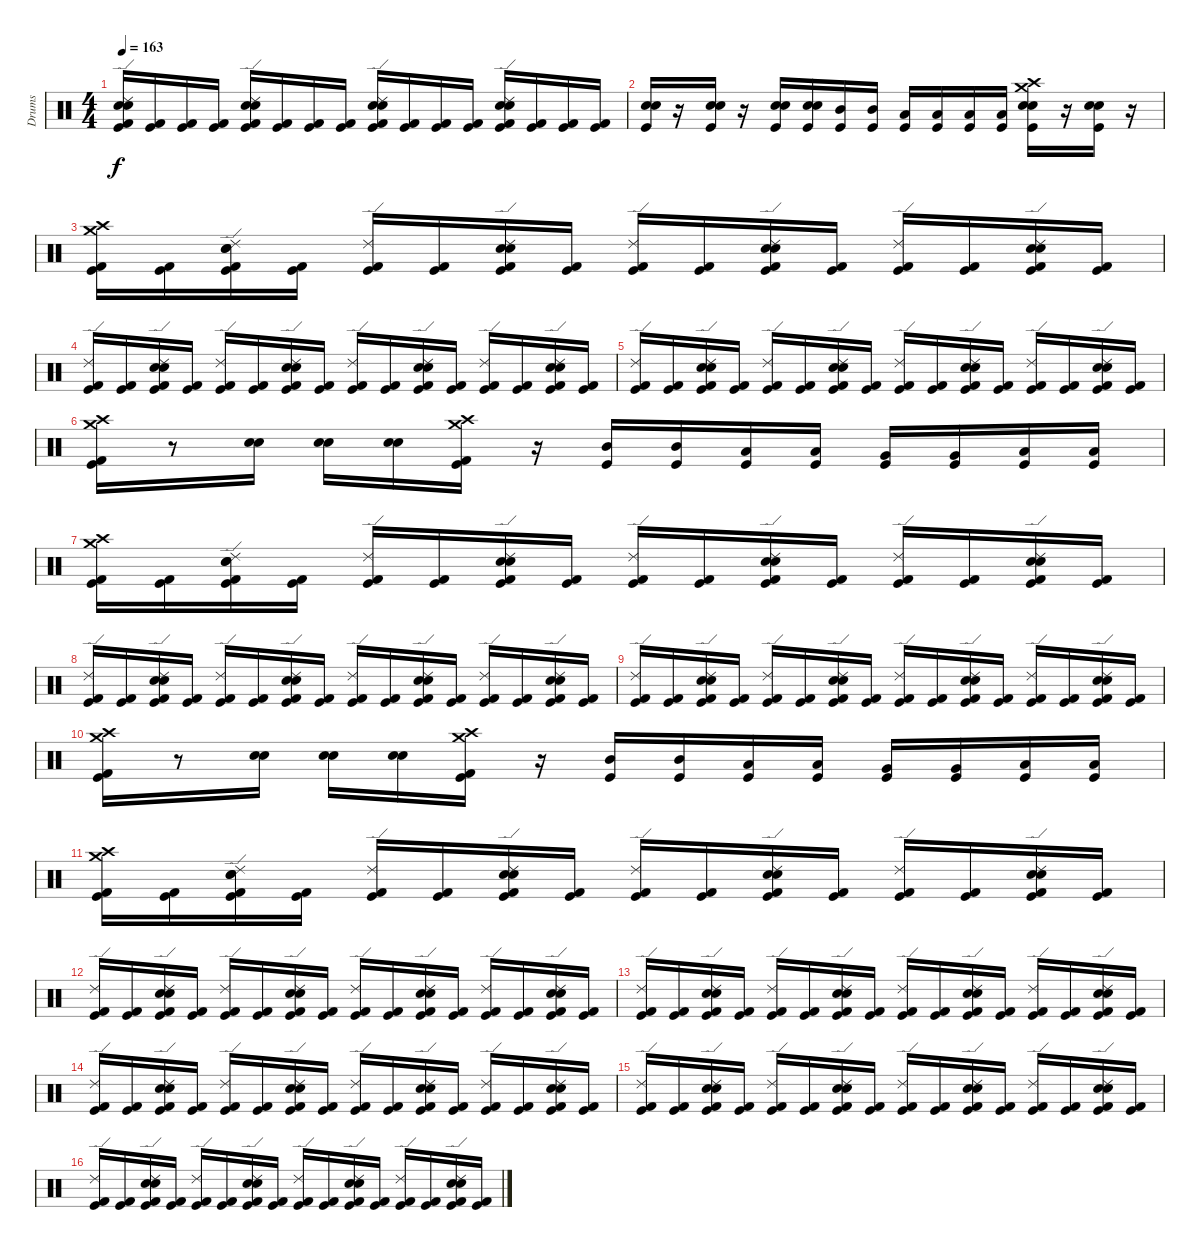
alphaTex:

\track ("Drums" "Drums") {instrument percussion}
\staff {score}
\articulation defaults
\ts (4 4)
\tempo 163
\clef neutral
\ks c
("Ride (edge) 2" "Electric Snare (hit)" "Snare (hit) 2" "Kick (hit) 2" "Kick (hit)").16{dy f} ("Kick (hit) 2" "Kick (hit)").16 ("Kick (hit) 2" "Kick (hit)").16 ("Kick (hit) 2" "Kick (hit)").16 ("Ride (edge) 2" "Electric Snare (hit)" "Snare (hit) 2" "Kick (hit) 2" "Kick (hit)").16 ("Kick (hit) 2" "Kick (hit)").16 ("Kick (hit) 2" "Kick (hit)").16 ("Kick (hit) 2" "Kick (hit)").16 ("Ride (edge) 2" "Electric Snare (hit)" "Snare (hit) 2" "Kick (hit) 2" "Kick (hit)").16 ("Kick (hit) 2" "Kick (hit)").16 ("Kick (hit) 2" "Kick (hit)").16 ("Kick (hit) 2" "Kick (hit)").16 ("Electric Snare (hit)" "Snare (hit) 2" "Ride (edge) 2" "Kick (hit) 2" "Kick (hit)").16 ("Kick (hit) 2" "Kick (hit)").16 ("Kick (hit) 2" "Kick (hit)").16 ("Kick (hit) 2" "Kick (hit)").16 |
("Kick (hit)" "Electric Snare (hit)" "Snare (hit) 2").16 r.16 ("Kick (hit)" "Electric Snare (hit)" "Snare (hit) 2").16 r.16 ("Kick (hit)" "Electric Snare (hit)" "Snare (hit) 2").16 ("Kick (hit)" "Electric Snare (hit)" "Snare (hit) 2").16 ("Kick (hit)" "Mid Tom (hit)").16 ("Kick (hit)" "Mid Tom (hit)").16 ("Kick (hit)" "Low Tom (hit)").16 ("Kick (hit)" "Low Tom (hit)").16 ("Kick (hit)" "Low Floor Tom (hit)").16 ("Kick (hit)" "Low Floor Tom (hit)").16 ("Kick (hit)" "Crash medium (hit)" "Crash high (hit)" "Electric Snare (hit)" "Snare (hit) 2").16 r.16 ("Kick (hit)" "Electric Snare (hit)" "Snare (hit) 2").16 r.16 |
("Crash high (hit)" "Crash medium (hit)" "Kick (hit) 2" "Kick (hit)").16 ("Kick (hit) 2" "Kick (hit)").16 ("Ride (edge) 2" "Electric Snare (hit)" "Snare (hit) 2" "Kick (hit) 2" "Kick (hit)").16 ("Kick (hit) 2" "Kick (hit)").16 ("Ride (edge) 2" "Kick (hit) 2" "Kick (hit)").16 ("Kick (hit) 2" "Kick (hit)").16 ("Ride (edge) 2" "Electric Snare (hit)" "Snare (hit) 2" "Kick (hit) 2" "Kick (hit)").16 ("Kick (hit) 2" "Kick (hit)").16 ("Ride (edge) 2" "Kick (hit) 2" "Kick (hit)").16 ("Kick (hit) 2" "Kick (hit)").16 ("Ride (edge) 2" "Electric Snare (hit)" "Snare (hit) 2" "Kick (hit) 2" "Kick (hit)").16 ("Kick (hit) 2" "Kick (hit)").16 ("Ride (edge) 2" "Kick (hit) 2" "Kick (hit)").16 ("Kick (hit) 2" "Kick (hit)").16 ("Ride (edge) 2" "Electric Snare (hit)" "Snare (hit) 2" "Kick (hit) 2" "Kick (hit)").16 ("Kick (hit) 2" "Kick (hit)").16 |
("Ride (edge) 2" "Kick (hit) 2" "Kick (hit)").16 ("Kick (hit) 2" "Kick (hit)").16 ("Ride (edge) 2" "Electric Snare (hit)" "Snare (hit) 2" "Kick (hit) 2" "Kick (hit)").16 ("Kick (hit) 2" "Kick (hit)").16 ("Ride (edge) 2" "Kick (hit) 2" "Kick (hit)").16 ("Kick (hit) 2" "Kick (hit)").16 ("Ride (edge) 2" "Electric Snare (hit)" "Snare (hit) 2" "Kick (hit) 2" "Kick (hit)").16 ("Kick (hit) 2" "Kick (hit)").16 ("Ride (edge) 2" "Kick (hit) 2" "Kick (hit)").16 ("Kick (hit) 2" "Kick (hit)").16 ("Ride (edge) 2" "Electric Snare (hit)" "Snare (hit) 2" "Kick (hit) 2" "Kick (hit)").16 ("Kick (hit) 2" "Kick (hit)").16 ("Ride (edge) 2" "Kick (hit) 2" "Kick (hit)").16 ("Kick (hit) 2" "Kick (hit)").16 ("Ride (edge) 2" "Electric Snare (hit)" "Snare (hit) 2" "Kick (hit) 2" "Kick (hit)").16 ("Kick (hit) 2" "Kick (hit)").16 |
("Ride (edge) 2" "Kick (hit) 2" "Kick (hit)").16 ("Kick (hit) 2" "Kick (hit)").16 ("Ride (edge) 2" "Electric Snare (hit)" "Snare (hit) 2" "Kick (hit) 2" "Kick (hit)").16 ("Kick (hit) 2" "Kick (hit)").16 ("Ride (edge) 2" "Kick (hit) 2" "Kick (hit)").16 ("Kick (hit) 2" "Kick (hit)").16 ("Ride (edge) 2" "Electric Snare (hit)" "Snare (hit) 2" "Kick (hit) 2" "Kick (hit)").16 ("Kick (hit) 2" "Kick (hit)").16 ("Ride (edge) 2" "Kick (hit) 2" "Kick (hit)").16 ("Kick (hit) 2" "Kick (hit)").16 ("Ride (edge) 2" "Electric Snare (hit)" "Snare (hit) 2" "Kick (hit) 2" "Kick (hit)").16 ("Kick (hit) 2" "Kick (hit)").16 ("Ride (edge) 2" "Kick (hit) 2" "Kick (hit)").16 ("Kick (hit) 2" "Kick (hit)").16 ("Ride (edge) 2" "Electric Snare (hit)" "Snare (hit) 2" "Kick (hit) 2" "Kick (hit)").16 ("Kick (hit) 2" "Kick (hit)").16 |
("Crash high (hit)" "Crash medium (hit)" "Kick (hit) 2" "Kick (hit)").16 r.8 ("Electric Snare (hit)" "Snare (hit) 2").16 ("Electric Snare (hit)" "Snare (hit) 2").16 ("Electric Snare (hit)" "Snare (hit) 2").16 ("Crash high (hit)" "Crash medium (hit)" "Kick (hit) 2" "Kick (hit)").16 r.16 ("Mid Tom (hit)" "Kick (hit)").16 ("Mid Tom (hit)" "Kick (hit)").16 ("Low Tom (hit)" "Kick (hit)").16 ("Low Tom (hit)" "Kick (hit)").16 ("Very Low Tom (hit)" "Kick (hit)").16 ("Very Low Tom (hit)" "Kick (hit)").16 ("Low Floor Tom (hit)" "Kick (hit)").16 ("Low Floor Tom (hit)" "Kick (hit)").16 |
("Crash high (hit)" "Crash medium (hit)" "Kick (hit) 2" "Kick (hit)").16 ("Kick (hit) 2" "Kick (hit)").16 ("Ride (edge) 2" "Electric Snare (hit)" "Snare (hit) 2" "Kick (hit) 2" "Kick (hit)").16 ("Kick (hit) 2" "Kick (hit)").16 ("Ride (edge) 2" "Kick (hit) 2" "Kick (hit)").16 ("Kick (hit) 2" "Kick (hit)").16 ("Ride (edge) 2" "Electric Snare (hit)" "Snare (hit) 2" "Kick (hit) 2" "Kick (hit)").16 ("Kick (hit) 2" "Kick (hit)").16 ("Ride (edge) 2" "Kick (hit) 2" "Kick (hit)").16 ("Kick (hit) 2" "Kick (hit)").16 ("Ride (edge) 2" "Electric Snare (hit)" "Snare (hit) 2" "Kick (hit) 2" "Kick (hit)").16 ("Kick (hit) 2" "Kick (hit)").16 ("Ride (edge) 2" "Kick (hit) 2" "Kick (hit)").16 ("Kick (hit) 2" "Kick (hit)").16 ("Ride (edge) 2" "Electric Snare (hit)" "Snare (hit) 2" "Kick (hit) 2" "Kick (hit)").16 ("Kick (hit) 2" "Kick (hit)").16 |
("Ride (edge) 2" "Kick (hit) 2" "Kick (hit)").16 ("Kick (hit) 2" "Kick (hit)").16 ("Ride (edge) 2" "Electric Snare (hit)" "Snare (hit) 2" "Kick (hit) 2" "Kick (hit)").16 ("Kick (hit) 2" "Kick (hit)").16 ("Ride (edge) 2" "Kick (hit) 2" "Kick (hit)").16 ("Kick (hit) 2" "Kick (hit)").16 ("Ride (edge) 2" "Electric Snare (hit)" "Snare (hit) 2" "Kick (hit) 2" "Kick (hit)").16 ("Kick (hit) 2" "Kick (hit)").16 ("Ride (edge) 2" "Kick (hit) 2" "Kick (hit)").16 ("Kick (hit) 2" "Kick (hit)").16 ("Ride (edge) 2" "Electric Snare (hit)" "Snare (hit) 2" "Kick (hit) 2" "Kick (hit)").16 ("Kick (hit) 2" "Kick (hit)").16 ("Ride (edge) 2" "Kick (hit) 2" "Kick (hit)").16 ("Kick (hit) 2" "Kick (hit)").16 ("Ride (edge) 2" "Electric Snare (hit)" "Snare (hit) 2" "Kick (hit) 2" "Kick (hit)").16 ("Kick (hit) 2" "Kick (hit)").16 |
("Ride (edge) 2" "Kick (hit) 2" "Kick (hit)").16 ("Kick (hit) 2" "Kick (hit)").16 ("Ride (edge) 2" "Electric Snare (hit)" "Snare (hit) 2" "Kick (hit) 2" "Kick (hit)").16 ("Kick (hit) 2" "Kick (hit)").16 ("Ride (edge) 2" "Kick (hit) 2" "Kick (hit)").16 ("Kick (hit) 2" "Kick (hit)").16 ("Ride (edge) 2" "Electric Snare (hit)" "Snare (hit) 2" "Kick (hit) 2" "Kick (hit)").16 ("Kick (hit) 2" "Kick (hit)").16 ("Ride (edge) 2" "Kick (hit) 2" "Kick (hit)").16 ("Kick (hit) 2" "Kick (hit)").16 ("Ride (edge) 2" "Electric Snare (hit)" "Snare (hit) 2" "Kick (hit) 2" "Kick (hit)").16 ("Kick (hit) 2" "Kick (hit)").16 ("Ride (edge) 2" "Kick (hit) 2" "Kick (hit)").16 ("Kick (hit) 2" "Kick (hit)").16 ("Ride (edge) 2" "Electric Snare (hit)" "Snare (hit) 2" "Kick (hit) 2" "Kick (hit)").16 ("Kick (hit) 2" "Kick (hit)").16 |
("Crash high (hit)" "Crash medium (hit)" "Kick (hit) 2" "Kick (hit)").16 r.8 ("Electric Snare (hit)" "Snare (hit) 2").16 ("Electric Snare (hit)" "Snare (hit) 2").16 ("Electric Snare (hit)" "Snare (hit) 2").16 ("Crash high (hit)" "Crash medium (hit)" "Kick (hit) 2" "Kick (hit)").16 r.16 ("Mid Tom (hit)" "Kick (hit)").16 ("Mid Tom (hit)" "Kick (hit)").16 ("Low Tom (hit)" "Kick (hit)").16 ("Low Tom (hit)" "Kick (hit)").16 ("Very Low Tom (hit)" "Kick (hit)").16 ("Very Low Tom (hit)" "Kick (hit)").16 ("Low Floor Tom (hit)" "Kick (hit)").16 ("Low Floor Tom (hit)" "Kick (hit)").16 |
("Crash high (hit)" "Crash medium (hit)" "Kick (hit) 2" "Kick (hit)").16 ("Kick (hit) 2" "Kick (hit)").16 ("Ride (edge) 2" "Electric Snare (hit)" "Snare (hit) 2" "Kick (hit) 2" "Kick (hit)").16 ("Kick (hit) 2" "Kick (hit)").16 ("Ride (edge) 2" "Kick (hit) 2" "Kick (hit)").16 ("Kick (hit) 2" "Kick (hit)").16 ("Ride (edge) 2" "Electric Snare (hit)" "Snare (hit) 2" "Kick (hit) 2" "Kick (hit)").16 ("Kick (hit) 2" "Kick (hit)").16 ("Ride (edge) 2" "Kick (hit) 2" "Kick (hit)").16 ("Kick (hit) 2" "Kick (hit)").16 ("Ride (edge) 2" "Electric Snare (hit)" "Snare (hit) 2" "Kick (hit) 2" "Kick (hit)").16 ("Kick (hit) 2" "Kick (hit)").16 ("Ride (edge) 2" "Kick (hit) 2" "Kick (hit)").16 ("Kick (hit) 2" "Kick (hit)").16 ("Ride (edge) 2" "Electric Snare (hit)" "Snare (hit) 2" "Kick (hit) 2" "Kick (hit)").16 ("Kick (hit) 2" "Kick (hit)").16 |
("Ride (edge) 2" "Kick (hit) 2" "Kick (hit)").16 ("Kick (hit) 2" "Kick (hit)").16 ("Ride (edge) 2" "Electric Snare (hit)" "Snare (hit) 2" "Kick (hit) 2" "Kick (hit)").16 ("Kick (hit) 2" "Kick (hit)").16 ("Ride (edge) 2" "Kick (hit) 2" "Kick (hit)").16 ("Kick (hit) 2" "Kick (hit)").16 ("Ride (edge) 2" "Electric Snare (hit)" "Snare (hit) 2" "Kick (hit) 2" "Kick (hit)").16 ("Kick (hit) 2" "Kick (hit)").16 ("Ride (edge) 2" "Kick (hit) 2" "Kick (hit)").16 ("Kick (hit) 2" "Kick (hit)").16 ("Ride (edge) 2" "Electric Snare (hit)" "Snare (hit) 2" "Kick (hit) 2" "Kick (hit)").16 ("Kick (hit) 2" "Kick (hit)").16 ("Ride (edge) 2" "Kick (hit) 2" "Kick (hit)").16 ("Kick (hit) 2" "Kick (hit)").16 ("Ride (edge) 2" "Electric Snare (hit)" "Snare (hit) 2" "Kick (hit) 2" "Kick (hit)").16 ("Kick (hit) 2" "Kick (hit)").16 |
("Ride (edge) 2" "Kick (hit) 2" "Kick (hit)").16 ("Kick (hit) 2" "Kick (hit)").16 ("Ride (edge) 2" "Electric Snare (hit)" "Snare (hit) 2" "Kick (hit) 2" "Kick (hit)").16 ("Kick (hit) 2" "Kick (hit)").16 ("Ride (edge) 2" "Kick (hit) 2" "Kick (hit)").16 ("Kick (hit) 2" "Kick (hit)").16 ("Ride (edge) 2" "Electric Snare (hit)" "Snare (hit) 2" "Kick (hit) 2" "Kick (hit)").16 ("Kick (hit) 2" "Kick (hit)").16 ("Ride (edge) 2" "Kick (hit) 2" "Kick (hit)").16 ("Kick (hit) 2" "Kick (hit)").16 ("Ride (edge) 2" "Electric Snare (hit)" "Snare (hit) 2" "Kick (hit) 2" "Kick (hit)").16 ("Kick (hit) 2" "Kick (hit)").16 ("Ride (edge) 2" "Kick (hit) 2" "Kick (hit)").16 ("Kick (hit) 2" "Kick (hit)").16 ("Ride (edge) 2" "Electric Snare (hit)" "Snare (hit) 2" "Kick (hit) 2" "Kick (hit)").16 ("Kick (hit) 2" "Kick (hit)").16 |
("Ride (edge) 2" "Kick (hit) 2" "Kick (hit)").16 ("Kick (hit) 2" "Kick (hit)").16 ("Ride (edge) 2" "Electric Snare (hit)" "Snare (hit) 2" "Kick (hit) 2" "Kick (hit)").16 ("Kick (hit) 2" "Kick (hit)").16 ("Ride (edge) 2" "Kick (hit) 2" "Kick (hit)").16 ("Kick (hit) 2" "Kick (hit)").16 ("Ride (edge) 2" "Electric Snare (hit)" "Snare (hit) 2" "Kick (hit) 2" "Kick (hit)").16 ("Kick (hit) 2" "Kick (hit)").16 ("Ride (edge) 2" "Kick (hit) 2" "Kick (hit)").16 ("Kick (hit) 2" "Kick (hit)").16 ("Ride (edge) 2" "Electric Snare (hit)" "Snare (hit) 2" "Kick (hit) 2" "Kick (hit)").16 ("Kick (hit) 2" "Kick (hit)").16 ("Ride (edge) 2" "Kick (hit) 2" "Kick (hit)").16 ("Kick (hit) 2" "Kick (hit)").16 ("Ride (edge) 2" "Electric Snare (hit)" "Snare (hit) 2" "Kick (hit) 2" "Kick (hit)").16 ("Kick (hit) 2" "Kick (hit)").16 |
("Ride (edge) 2" "Kick (hit) 2" "Kick (hit)").16 ("Kick (hit) 2" "Kick (hit)").16 ("Ride (edge) 2" "Electric Snare (hit)" "Snare (hit) 2" "Kick (hit) 2" "Kick (hit)").16 ("Kick (hit) 2" "Kick (hit)").16 ("Ride (edge) 2" "Kick (hit) 2" "Kick (hit)").16 ("Kick (hit) 2" "Kick (hit)").16 ("Ride (edge) 2" "Electric Snare (hit)" "Snare (hit) 2" "Kick (hit) 2" "Kick (hit)").16 ("Kick (hit) 2" "Kick (hit)").16 ("Ride (edge) 2" "Kick (hit) 2" "Kick (hit)").16 ("Kick (hit) 2" "Kick (hit)").16 ("Ride (edge) 2" "Electric Snare (hit)" "Snare (hit) 2" "Kick (hit) 2" "Kick (hit)").16 ("Kick (hit) 2" "Kick (hit)").16 ("Ride (edge) 2" "Kick (hit) 2" "Kick (hit)").16 ("Kick (hit) 2" "Kick (hit)").16 ("Ride (edge) 2" "Electric Snare (hit)" "Snare (hit) 2" "Kick (hit) 2" "Kick (hit)").16 ("Kick (hit) 2" "Kick (hit)").16 |
("Ride (edge) 2" "Kick (hit) 2" "Kick (hit)").16 ("Kick (hit) 2" "Kick (hit)").16 ("Ride (edge) 2" "Electric Snare (hit)" "Snare (hit) 2" "Kick (hit) 2" "Kick (hit)").16 ("Kick (hit) 2" "Kick (hit)").16 ("Ride (edge) 2" "Kick (hit) 2" "Kick (hit)").16 ("Kick (hit) 2" "Kick (hit)").16 ("Ride (edge) 2" "Electric Snare (hit)" "Snare (hit) 2" "Kick (hit) 2" "Kick (hit)").16 ("Kick (hit) 2" "Kick (hit)").16 ("Ride (edge) 2" "Kick (hit) 2" "Kick (hit)").16 ("Kick (hit) 2" "Kick (hit)").16 ("Ride (edge) 2" "Electric Snare (hit)" "Snare (hit) 2" "Kick (hit) 2" "Kick (hit)").16 ("Kick (hit) 2" "Kick (hit)").16 ("Ride (edge) 2" "Kick (hit) 2" "Kick (hit)").16 ("Kick (hit) 2" "Kick (hit)").16 ("Ride (edge) 2" "Electric Snare (hit)" "Snare (hit) 2" "Kick (hit) 2" "Kick (hit)").16 ("Kick (hit) 2" "Kick (hit)").16
